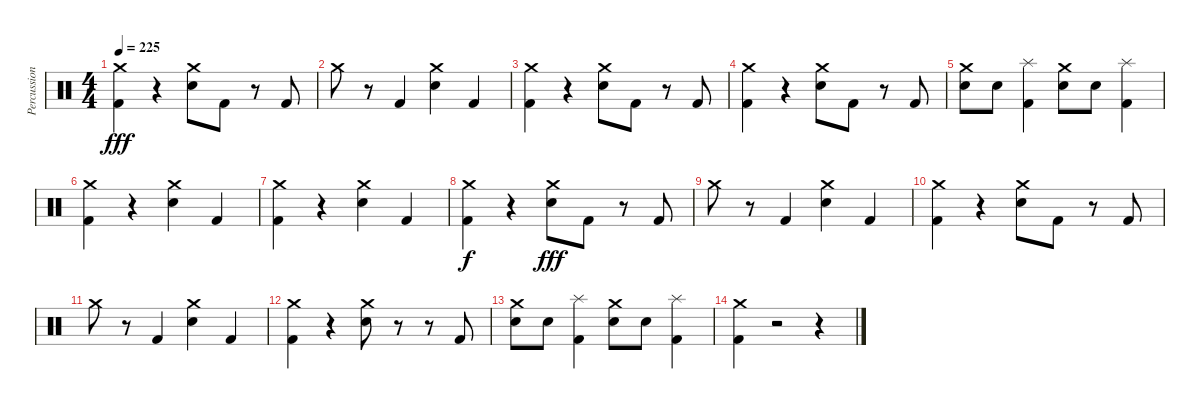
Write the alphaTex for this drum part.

\track ("Percussion" "Percussion") {instrument percussion}
\staff {score}
\articulation defaults
\ts (4 4)
\tempo 225
\clef neutral
\ks c
("Crash medium (hit)" "Kick (hit) 2").4{dy fff} r.4 ("Crash medium (hit)" "Electric Snare (hit)").8 "Kick (hit) 2".8 r.8 "Kick (hit) 2".8 |
"Crash medium (hit)".8 r.8 "Kick (hit) 2".4 ("Crash medium (hit)" "Electric Snare (hit)").4 "Kick (hit) 2".4 |
("Crash medium (hit)" "Kick (hit) 2").4 r.4 ("Crash medium (hit)" "Electric Snare (hit)").8 "Kick (hit) 2".8 r.8 "Kick (hit) 2".8 |
("Crash medium (hit)" "Kick (hit) 2").4 r.4 ("Crash medium (hit)" "Electric Snare (hit)").8 "Kick (hit) 2".8 r.8 "Kick (hit) 2".8 |
("Crash medium (hit)" "Electric Snare (hit)").8 "Electric Snare (hit)".8 ("Splash (hit)" "Kick (hit) 2").4 ("Crash medium (hit)" "Electric Snare (hit)").8 "Electric Snare (hit)".8 ("Splash (hit)" "Kick (hit) 2").4 |
("Crash medium (hit)" "Kick (hit) 2").4 r.4 ("Crash medium (hit)" "Electric Snare (hit)").4 "Kick (hit) 2".4 |
("Crash medium (hit)" "Kick (hit) 2").4 r.4 ("Crash medium (hit)" "Electric Snare (hit)").4 "Kick (hit) 2".4 |
("Crash medium (hit)" "Kick (hit) 2").4{dy f} r.4 ("Crash medium (hit)" "Electric Snare (hit)").8{dy fff} "Kick (hit) 2".8 r.8 "Kick (hit) 2".8 |
"Crash medium (hit)".8 r.8 "Kick (hit) 2".4 ("Crash medium (hit)" "Electric Snare (hit)").4 "Kick (hit) 2".4 |
("Crash medium (hit)" "Kick (hit) 2").4 r.4 ("Crash medium (hit)" "Electric Snare (hit)").8 "Kick (hit) 2".8 r.8 "Kick (hit) 2".8 |
"Crash medium (hit)".8 r.8 "Kick (hit) 2".4 ("Crash medium (hit)" "Electric Snare (hit)").4 "Kick (hit) 2".4 |
("Crash medium (hit)" "Kick (hit) 2").4 r.4 ("Crash medium (hit)" "Electric Snare (hit)").8 r.8 r.8 "Kick (hit) 2".8 |
("Crash medium (hit)" "Electric Snare (hit)").8 "Electric Snare (hit)".8 ("Splash (hit)" "Kick (hit) 2").4 ("Crash medium (hit)" "Electric Snare (hit)").8 "Electric Snare (hit)".8 ("Splash (hit)" "Kick (hit) 2").4 |
("Crash medium (hit)" "Kick (hit) 2").4 r.2 r.4
